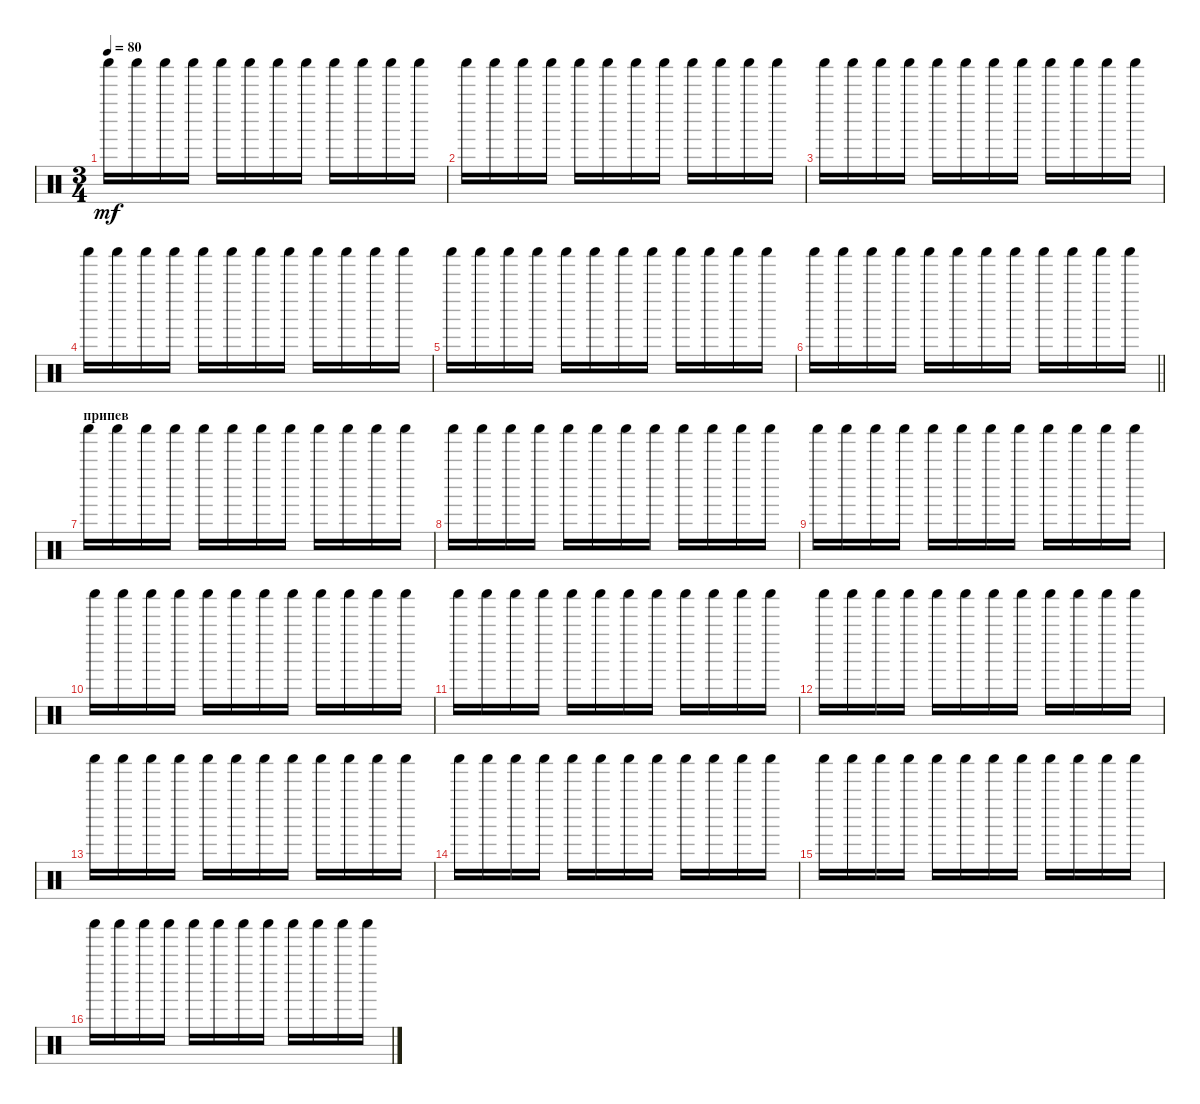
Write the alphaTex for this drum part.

\track "" {instrument percussion}
\staff {score}
\articulation defaults
\ts (3 4)
\tempo 80
\clef neutral
\ks c "Shaker (hit)".16{dy mf} "Shaker (hit)".16 "Shaker (hit)".16 "Shaker (hit)".16 "Shaker (hit)".16 "Shaker (hit)".16 "Shaker (hit)".16 "Shaker (hit)".16 "Shaker (hit)".16 "Shaker (hit)".16 "Shaker (hit)".16 "Shaker (hit)".16
|
"Shaker (hit)".16 "Shaker (hit)".16 "Shaker (hit)".16 "Shaker (hit)".16 "Shaker (hit)".16 "Shaker (hit)".16 "Shaker (hit)".16 "Shaker (hit)".16 "Shaker (hit)".16 "Shaker (hit)".16 "Shaker (hit)".16 "Shaker (hit)".16 |
"Shaker (hit)".16 "Shaker (hit)".16 "Shaker (hit)".16 "Shaker (hit)".16 "Shaker (hit)".16 "Shaker (hit)".16 "Shaker (hit)".16 "Shaker (hit)".16 "Shaker (hit)".16 "Shaker (hit)".16 "Shaker (hit)".16 "Shaker (hit)".16 |
"Shaker (hit)".16 "Shaker (hit)".16 "Shaker (hit)".16 "Shaker (hit)".16 "Shaker (hit)".16 "Shaker (hit)".16 "Shaker (hit)".16 "Shaker (hit)".16 "Shaker (hit)".16 "Shaker (hit)".16 "Shaker (hit)".16 "Shaker (hit)".16 |
"Shaker (hit)".16 "Shaker (hit)".16 "Shaker (hit)".16 "Shaker (hit)".16 "Shaker (hit)".16 "Shaker (hit)".16 "Shaker (hit)".16 "Shaker (hit)".16 "Shaker (hit)".16 "Shaker (hit)".16 "Shaker (hit)".16 "Shaker (hit)".16 |
\barLineRight lightlight "Shaker (hit)".16 "Shaker (hit)".16 "Shaker (hit)".16 "Shaker (hit)".16 "Shaker (hit)".16 "Shaker (hit)".16 "Shaker (hit)".16 "Shaker (hit)".16 "Shaker (hit)".16 "Shaker (hit)".16 "Shaker (hit)".16 "Shaker (hit)".16
|
\section ("" "припев")
"Shaker (hit)".16 "Shaker (hit)".16 "Shaker (hit)".16 "Shaker (hit)".16 "Shaker (hit)".16 "Shaker (hit)".16 "Shaker (hit)".16 "Shaker (hit)".16 "Shaker (hit)".16 "Shaker (hit)".16 "Shaker (hit)".16 "Shaker (hit)".16 |
"Shaker (hit)".16 "Shaker (hit)".16 "Shaker (hit)".16 "Shaker (hit)".16 "Shaker (hit)".16 "Shaker (hit)".16 "Shaker (hit)".16 "Shaker (hit)".16 "Shaker (hit)".16 "Shaker (hit)".16 "Shaker (hit)".16 "Shaker (hit)".16 |
"Shaker (hit)".16 "Shaker (hit)".16 "Shaker (hit)".16 "Shaker (hit)".16 "Shaker (hit)".16 "Shaker (hit)".16 "Shaker (hit)".16 "Shaker (hit)".16 "Shaker (hit)".16 "Shaker (hit)".16 "Shaker (hit)".16 "Shaker (hit)".16 |
"Shaker (hit)".16 "Shaker (hit)".16 "Shaker (hit)".16 "Shaker (hit)".16 "Shaker (hit)".16 "Shaker (hit)".16 "Shaker (hit)".16 "Shaker (hit)".16 "Shaker (hit)".16 "Shaker (hit)".16 "Shaker (hit)".16 "Shaker (hit)".16 |
"Shaker (hit)".16 "Shaker (hit)".16 "Shaker (hit)".16 "Shaker (hit)".16 "Shaker (hit)".16 "Shaker (hit)".16 "Shaker (hit)".16 "Shaker (hit)".16 "Shaker (hit)".16 "Shaker (hit)".16 "Shaker (hit)".16 "Shaker (hit)".16 |
"Shaker (hit)".16 "Shaker (hit)".16 "Shaker (hit)".16 "Shaker (hit)".16 "Shaker (hit)".16 "Shaker (hit)".16 "Shaker (hit)".16 "Shaker (hit)".16 "Shaker (hit)".16 "Shaker (hit)".16 "Shaker (hit)".16 "Shaker (hit)".16 |
"Shaker (hit)".16 "Shaker (hit)".16 "Shaker (hit)".16 "Shaker (hit)".16 "Shaker (hit)".16 "Shaker (hit)".16 "Shaker (hit)".16 "Shaker (hit)".16 "Shaker (hit)".16 "Shaker (hit)".16 "Shaker (hit)".16 "Shaker (hit)".16 |
"Shaker (hit)".16 "Shaker (hit)".16 "Shaker (hit)".16 "Shaker (hit)".16 "Shaker (hit)".16 "Shaker (hit)".16 "Shaker (hit)".16 "Shaker (hit)".16 "Shaker (hit)".16 "Shaker (hit)".16 "Shaker (hit)".16 "Shaker (hit)".16 |
"Shaker (hit)".16 "Shaker (hit)".16 "Shaker (hit)".16 "Shaker (hit)".16 "Shaker (hit)".16 "Shaker (hit)".16 "Shaker (hit)".16 "Shaker (hit)".16 "Shaker (hit)".16 "Shaker (hit)".16 "Shaker (hit)".16 "Shaker (hit)".16 |
"Shaker (hit)".16 "Shaker (hit)".16 "Shaker (hit)".16 "Shaker (hit)".16 "Shaker (hit)".16 "Shaker (hit)".16 "Shaker (hit)".16 "Shaker (hit)".16 "Shaker (hit)".16 "Shaker (hit)".16 "Shaker (hit)".16 "Shaker (hit)".16
